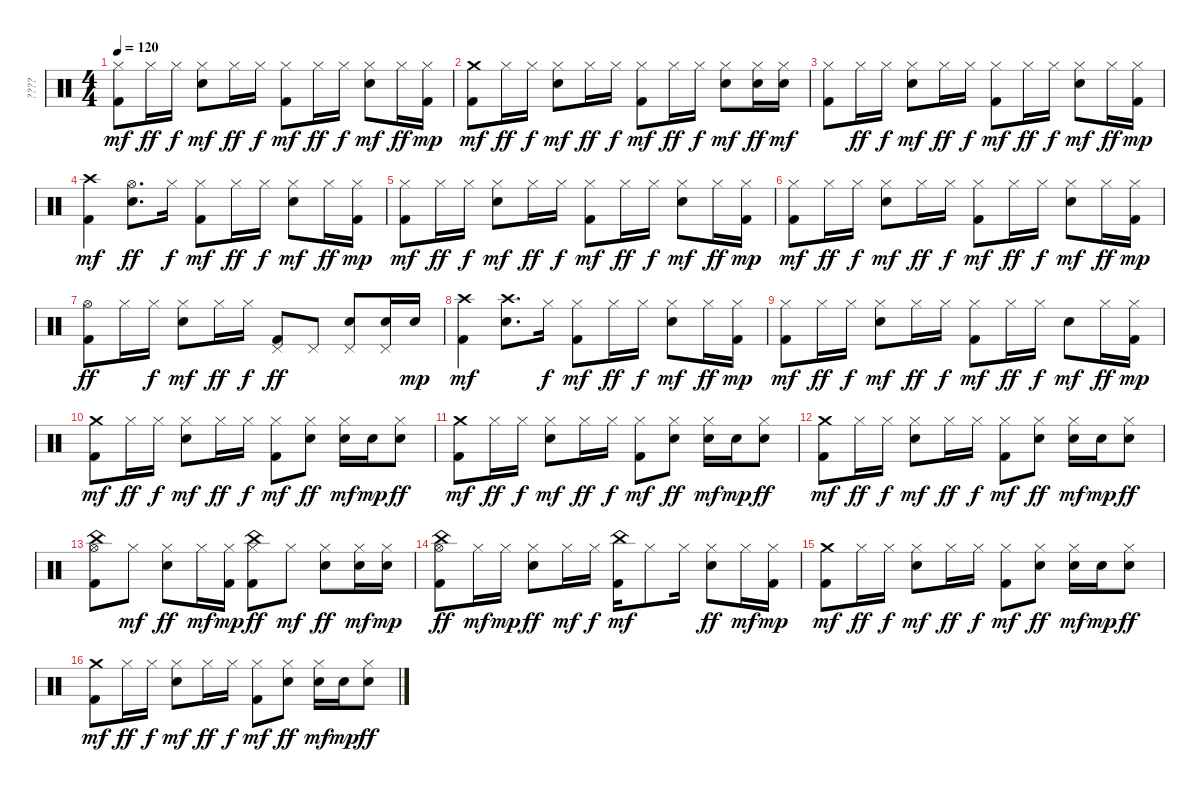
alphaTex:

\track ("????" "????") {instrument percussion}
\staff {score}
\articulation defaults
\ts (4 4)
\tempo 120
\clef neutral
\ks c
("Hi-Hat (closed)" "Kick (hit) 2").8{dy mf} "Hi-Hat (closed)".16{dy ff} "Hi-Hat (closed)".16{dy f} ("Hi-Hat (closed)" "Snare (hit) 2").8{dy mf} "Hi-Hat (closed)".16{dy ff} "Hi-Hat (closed)".16{dy f} ("Hi-Hat (closed)" "Kick (hit) 2").8{dy mf} "Hi-Hat (closed)".16{dy ff} "Hi-Hat (closed)".16{dy f} ("Hi-Hat (closed)" "Snare (hit) 2").8{dy mf} "Hi-Hat (closed)".16{dy ff} ("Hi-Hat (closed)" "Kick (hit) 2").16{dy mp} |
("Kick (hit) 2" "Crash medium (hit)").8{dy mf} "Hi-Hat (closed)".16{dy ff} "Hi-Hat (closed)".16{dy f} ("Hi-Hat (closed)" "Snare (hit) 2").8{dy mf} "Hi-Hat (closed)".16{dy ff} "Hi-Hat (closed)".16{dy f} ("Hi-Hat (closed)" "Kick (hit) 2").8{dy mf} "Hi-Hat (closed)".16{dy ff} "Hi-Hat (closed)".16{dy f} ("Hi-Hat (closed)" "Snare (hit) 2").8{dy mf} ("Snare (hit) 2" "Hi-Hat (closed)").16{dy ff} ("Hi-Hat (closed)" "Snare (hit) 2").16{dy mf} |
("Hi-Hat (closed)" "Kick (hit) 2").8 "Hi-Hat (closed)".16{dy ff} "Hi-Hat (closed)".16{dy f} ("Hi-Hat (closed)" "Snare (hit) 2").8{dy mf} "Hi-Hat (closed)".16{dy ff} "Hi-Hat (closed)".16{dy f} ("Hi-Hat (closed)" "Kick (hit) 2").8{dy mf} "Hi-Hat (closed)".16{dy ff} "Hi-Hat (closed)".16{dy f} ("Hi-Hat (closed)" "Snare (hit) 2").8{dy mf} "Hi-Hat (closed)".16{dy ff} ("Hi-Hat (closed)" "Kick (hit) 2").16{dy mp} |
("Kick (hit) 2" "Crash high (hit)").4{dy mf} ("Snare (hit) 2" "Hi-Hat (open)").8{d dy ff} "Hi-Hat (closed)".16{dy f} ("Kick (hit) 2" "Hi-Hat (closed)").8{dy mf} "Hi-Hat (closed)".16{dy ff} "Hi-Hat (closed)".16{dy f} ("Snare (hit) 2" "Hi-Hat (closed)").8{dy mf} "Hi-Hat (closed)".16{dy ff} ("Kick (hit) 2" "Hi-Hat (closed)").16{dy mp} |
("Kick (hit) 2" "Hi-Hat (closed)").8{dy mf} "Hi-Hat (closed)".16{dy ff} "Hi-Hat (closed)".16{dy f} ("Snare (hit) 2" "Hi-Hat (closed)").8{dy mf} "Hi-Hat (closed)".16{dy ff} "Hi-Hat (closed)".16{dy f} ("Kick (hit) 2" "Hi-Hat (closed)").8{dy mf} "Hi-Hat (closed)".16{dy ff} "Hi-Hat (closed)".16{dy f} ("Snare (hit) 2" "Hi-Hat (closed)").8{dy mf} "Hi-Hat (closed)".16{dy ff} ("Kick (hit) 2" "Hi-Hat (closed)").16{dy mp} |
("Kick (hit) 2" "Hi-Hat (closed)").8{dy mf} "Hi-Hat (closed)".16{dy ff} "Hi-Hat (closed)".16{dy f} ("Snare (hit) 2" "Hi-Hat (closed)").8{dy mf} "Hi-Hat (closed)".16{dy ff} "Hi-Hat (closed)".16{dy f} ("Kick (hit) 2" "Hi-Hat (closed)").8{dy mf} "Hi-Hat (closed)".16{dy ff} "Hi-Hat (closed)".16{dy f} ("Snare (hit) 2" "Hi-Hat (closed)").8{dy mf} "Hi-Hat (closed)".16{dy ff} ("Hi-Hat (closed)" "Kick (hit) 2").16{dy mp} |
("Kick (hit) 2" "Hi-Hat (open)").8{dy ff} "Hi-Hat (closed)".16 "Hi-Hat (closed)".16{dy f} ("Snare (hit) 2" "Hi-Hat (closed)").8{dy mf} "Hi-Hat (closed)".16{dy ff} "Hi-Hat (closed)".16{dy f} ("Kick (hit) 2" "Pedal Hi-Hat (hit)").8{dy ff} "Pedal Hi-Hat (hit)".8 ("Snare (hit) 2" "Pedal Hi-Hat (hit)").8 ("Snare (hit) 2" "Pedal Hi-Hat (hit)").16 "Snare (hit) 2".16{dy mp} |
("Kick (hit) 2" "Crash high (hit)").4{dy mf} ("Snare (hit) 2" "Crash high (hit)").8{d} "Hi-Hat (closed)".16{dy f} ("Kick (hit) 2" "Hi-Hat (closed)").8{dy mf} "Hi-Hat (closed)".16{dy ff} "Hi-Hat (closed)".16{dy f} ("Snare (hit) 2" "Hi-Hat (closed)").8{dy mf} "Hi-Hat (closed)".16{dy ff} ("Kick (hit) 2" "Hi-Hat (closed)").16{dy mp} |
("Kick (hit) 2" "Hi-Hat (closed)").8{dy mf} "Hi-Hat (closed)".16{dy ff} "Hi-Hat (closed)".16{dy f} ("Snare (hit) 2" "Hi-Hat (closed)").8{dy mf} "Hi-Hat (closed)".16{dy ff} "Hi-Hat (closed)".16{dy f} ("Kick (hit) 2" "Hi-Hat (closed)").8{dy mf} "Hi-Hat (closed)".16{dy ff} "Hi-Hat (closed)".16{dy f} "Snare (hit) 2".8{dy mf} "Hi-Hat (closed)".16{dy ff} ("Kick (hit) 2" "Hi-Hat (closed)").16{dy mp} |
("Kick (hit) 2" "Crash medium (hit)").8{dy mf} "Hi-Hat (closed)".16{dy ff} "Hi-Hat (closed)".16{dy f} ("Snare (hit) 2" "Hi-Hat (closed)").8{dy mf} "Hi-Hat (closed)".16{dy ff} "Hi-Hat (closed)".16{dy f} ("Kick (hit) 2" "Hi-Hat (closed)").8{dy mf} ("Snare (hit) 2" "Hi-Hat (closed)").8{dy ff} ("Snare (hit) 2" "Hi-Hat (closed)").16{dy mf} "Snare (hit) 2".16{dy mp} ("Snare (hit) 2" "Hi-Hat (closed)").8{dy ff} |
("Kick (hit) 2" "Crash medium (hit)").8{dy mf} "Hi-Hat (closed)".16{dy ff} "Hi-Hat (closed)".16{dy f} ("Snare (hit) 2" "Hi-Hat (closed)").8{dy mf} "Hi-Hat (closed)".16{dy ff} "Hi-Hat (closed)".16{dy f} ("Kick (hit) 2" "Hi-Hat (closed)").8{dy mf} ("Snare (hit) 2" "Hi-Hat (closed)").8{dy ff} ("Snare (hit) 2" "Hi-Hat (closed)").16{dy mf} "Snare (hit) 2".16{dy mp} ("Snare (hit) 2" "Hi-Hat (closed)").8{dy ff} |
("Kick (hit) 2" "Crash medium (hit)").8{dy mf} "Hi-Hat (closed)".16{dy ff} "Hi-Hat (closed)".16{dy f} ("Snare (hit) 2" "Hi-Hat (closed)").8{dy mf} "Hi-Hat (closed)".16{dy ff} "Hi-Hat (closed)".16{dy f} ("Kick (hit) 2" "Hi-Hat (closed)").8{dy mf} ("Snare (hit) 2" "Hi-Hat (closed)").8{dy ff} ("Snare (hit) 2" "Hi-Hat (closed)").16{dy mf} "Snare (hit) 2".16{dy mp} ("Snare (hit) 2" "Hi-Hat (closed)").8{dy ff} |
("China (hit)" "Kick (hit) 2" "Hi-Hat (open)").8 "Hi-Hat (closed)".8{dy mf} ("Snare (hit) 2" "Hi-Hat (closed)").8{dy ff} "Hi-Hat (closed)".16{dy mf} ("Hi-Hat (closed)" "Kick (hit) 2").16{dy mp} ("China (hit)" "Kick (hit) 2" "Hi-Hat (closed)").8{dy ff} "Hi-Hat (closed)".8{dy mf} ("Snare (hit) 2" "Hi-Hat (closed)").8{dy ff} ("Snare (hit) 2" "Hi-Hat (closed)").16{dy mf} ("Snare (hit) 2" "Hi-Hat (closed)").16{dy mp} |
("China (hit)" "Kick (hit) 2" "Hi-Hat (open)").8{dy ff} "Hi-Hat (closed)".16{dy mf} "Hi-Hat (closed)".16{dy mp} ("Snare (hit) 2" "Hi-Hat (closed)").8{dy ff} "Hi-Hat (closed)".16{dy mf} "Hi-Hat (closed)".16{dy f} ("China (hit)" "Kick (hit) 2").16{dy mf} "Hi-Hat (closed)".8 "Hi-Hat (closed)".16 ("Snare (hit) 2" "Hi-Hat (closed)").8{dy ff} "Hi-Hat (closed)".16{dy mf} ("Hi-Hat (closed)" "Kick (hit) 2").16{dy mp} |
("Kick (hit) 2" "Crash medium (hit)").8{dy mf} "Hi-Hat (closed)".16{dy ff} "Hi-Hat (closed)".16{dy f} ("Snare (hit) 2" "Hi-Hat (closed)").8{dy mf} "Hi-Hat (closed)".16{dy ff} "Hi-Hat (closed)".16{dy f} ("Kick (hit) 2" "Hi-Hat (closed)").8{dy mf} ("Snare (hit) 2" "Hi-Hat (closed)").8{dy ff} ("Snare (hit) 2" "Hi-Hat (closed)").16{dy mf} "Snare (hit) 2".16{dy mp} ("Snare (hit) 2" "Hi-Hat (closed)").8{dy ff} |
("Kick (hit) 2" "Crash medium (hit)").8{dy mf} "Hi-Hat (closed)".16{dy ff} "Hi-Hat (closed)".16{dy f} ("Snare (hit) 2" "Hi-Hat (closed)").8{dy mf} "Hi-Hat (closed)".16{dy ff} "Hi-Hat (closed)".16{dy f} ("Kick (hit) 2" "Hi-Hat (closed)").8{dy mf} ("Snare (hit) 2" "Hi-Hat (closed)").8{dy ff} ("Snare (hit) 2" "Hi-Hat (closed)").16{dy mf} "Snare (hit) 2".16{dy mp} ("Snare (hit) 2" "Hi-Hat (closed)").8{dy ff}
